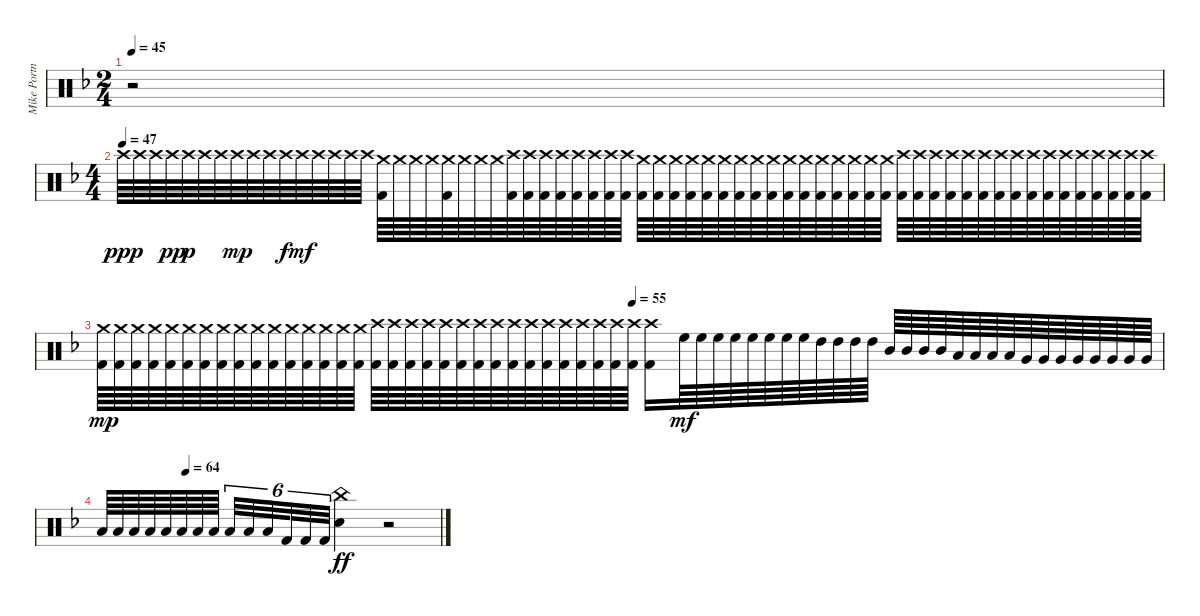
\track ("Mike Portnoy Drums" "Mike Portn") {instrument percussion}
\staff {score}
\articulation defaults
\ts (2 4)
\tempo 45
\clef neutral
\ks dminor
r.2{dy fff} |
\ts (4 4)
\tempo (47)
"Crash high (hit)".64{dy ppp} "Crash high (hit)".64 "Crash high (hit)".64 "Crash high (hit)".64{dy pp} "Crash high (hit)".64{dy p} "Crash high (hit)".64 "Crash high (hit)".64 "Crash high (hit)".64{dy mp} "Crash high (hit)".64 "Crash high (hit)".64 "Crash high (hit)".64{dy f} "Crash high (hit)".64{dy mf} "Crash high (hit)".64 "Crash high (hit)".64 "Crash high (hit)".64 "Crash high (hit)".64 ("Crash medium (hit)" "Kick (hit) 2").64 "Crash medium (hit)".64 "Crash medium (hit)".64 "Crash medium (hit)".64 ("Crash medium (hit)" "Kick (hit) 2").64 "Crash medium (hit)".64 "Crash medium (hit)".64 "Crash medium (hit)".64 ("Crash high (hit)" "Kick (hit) 2").64 ("Crash high (hit)" "Kick (hit) 2").64 ("Crash high (hit)" "Kick (hit) 2").64 ("Crash high (hit)" "Kick (hit) 2").64 ("Crash high (hit)" "Kick (hit) 2").64 ("Crash high (hit)" "Kick (hit) 2").64 ("Crash high (hit)" "Kick (hit) 2").64 ("Crash high (hit)" "Kick (hit) 2").64 ("Crash medium (hit)" "Kick (hit) 2").64 ("Crash medium (hit)" "Kick (hit) 2").64 ("Crash medium (hit)" "Kick (hit) 2").64 ("Crash medium (hit)" "Kick (hit) 2").64 ("Crash medium (hit)" "Kick (hit) 2").64 ("Crash medium (hit)" "Kick (hit) 2").64 ("Crash medium (hit)" "Kick (hit) 2").64 ("Crash medium (hit)" "Kick (hit) 2").64 ("Crash medium (hit)" "Kick (hit) 2").64 ("Crash medium (hit)" "Kick (hit) 2").64 ("Crash medium (hit)" "Kick (hit) 2").64 ("Crash medium (hit)" "Kick (hit) 2").64 ("Crash medium (hit)" "Kick (hit) 2").64 ("Crash medium (hit)" "Kick (hit) 2").64 ("Crash medium (hit)" "Kick (hit) 2").64 ("Crash medium (hit)" "Kick (hit) 2").64 ("Crash high (hit)" "Kick (hit) 2").64 ("Crash high (hit)" "Kick (hit) 2").64 ("Crash high (hit)" "Kick (hit) 2").64 ("Crash high (hit)" "Kick (hit) 2").64 ("Crash high (hit)" "Kick (hit) 2").64 ("Crash high (hit)" "Kick (hit) 2").64 ("Crash high (hit)" "Kick (hit) 2").64 ("Crash high (hit)" "Kick (hit) 2").64 ("Crash high (hit)" "Kick (hit) 2").64 ("Crash high (hit)" "Kick (hit) 2").64 ("Crash high (hit)" "Kick (hit) 2").64 ("Crash high (hit)" "Kick (hit) 2").64 ("Crash high (hit)" "Kick (hit) 2").64 ("Crash high (hit)" "Kick (hit) 2").64 ("Crash high (hit)" "Kick (hit) 2").64 ("Crash high (hit)" "Kick (hit) 2").64 |
\tempo (55 0.5)
("Crash medium (hit)" "Kick (hit) 2").64{dy mp} ("Crash medium (hit)" "Kick (hit) 2").64 ("Crash medium (hit)" "Kick (hit) 2").64 ("Crash medium (hit)" "Kick (hit) 2").64 ("Crash medium (hit)" "Kick (hit) 2").64 ("Crash medium (hit)" "Kick (hit) 2").64 ("Crash medium (hit)" "Kick (hit) 2").64 ("Crash medium (hit)" "Kick (hit) 2").64 ("Crash medium (hit)" "Kick (hit) 2").64 ("Crash medium (hit)" "Kick (hit) 2").64 ("Crash medium (hit)" "Kick (hit) 2").64 ("Crash medium (hit)" "Kick (hit) 2").64 ("Crash medium (hit)" "Kick (hit) 2").64 ("Crash medium (hit)" "Kick (hit) 2").64 ("Crash medium (hit)" "Kick (hit) 2").64 ("Crash medium (hit)" "Kick (hit) 2").64 ("Crash high (hit)" "Kick (hit) 2").64 ("Crash high (hit)" "Kick (hit) 2").64 ("Crash high (hit)" "Kick (hit) 2").64 ("Crash high (hit)" "Kick (hit) 2").64 ("Crash high (hit)" "Kick (hit) 2").64 ("Crash high (hit)" "Kick (hit) 2").64 ("Crash high (hit)" "Kick (hit) 2").64 ("Crash high (hit)" "Kick (hit) 2").64 ("Crash high (hit)" "Kick (hit) 2").64 ("Crash high (hit)" "Kick (hit) 2").64 ("Crash high (hit)" "Kick (hit) 2").64 ("Crash high (hit)" "Kick (hit) 2").64 ("Crash high (hit)" "Kick (hit) 2").64 ("Crash high (hit)" "Kick (hit) 2").64 ("Crash high (hit)" "Kick (hit) 2").64 ("Crash high (hit)" "Kick (hit) 2").64 ("Crash high (hit)" "Kick (hit) 2").16 "High Floor Tom (hit)".64{dy mf} "High Floor Tom (hit)".64 "High Floor Tom (hit)".64 "High Floor Tom (hit)".64 "High Floor Tom (hit)".64 "High Floor Tom (hit)".64 "High Floor Tom (hit)".64 "High Floor Tom (hit)".64 "High Tom (hit)".64 "High Tom (hit)".64 "High Tom (hit)".64 "High Tom (hit)".64 "Mid Tom (hit)".64 "Mid Tom (hit)".64 "Mid Tom (hit)".64 "Mid Tom (hit)".64 "Low Tom (hit)".64 "Low Tom (hit)".64 "Low Tom (hit)".64 "Low Tom (hit)".64 "Very Low Tom (hit)".64 "Very Low Tom (hit)".64 "Very Low Tom (hit)".64 "Very Low Tom (hit)".64 "Very Low Tom (hit)".64 "Very Low Tom (hit)".64 "Very Low Tom (hit)".64 "Very Low Tom (hit)".64 |
\tempo (64 0.25)
"Low Floor Tom (hit)".64 "Low Floor Tom (hit)".64 "Low Floor Tom (hit)".64 "Low Floor Tom (hit)".64 "Low Floor Tom (hit)".64 "Low Floor Tom (hit)".64 "Low Floor Tom (hit)".64 "Low Floor Tom (hit)".64{beam splitsecondary} "Low Floor Tom (hit)".32{tu (6 4)} "Low Floor Tom (hit)".32{tu (6 4)} "Low Floor Tom (hit)".32{tu (6 4) beam splitsecondary} "Kick (hit) 2".32{tu (6 4)} "Kick (hit) 2".32{tu (6 4)} "Kick (hit) 2".32{tu (6 4)} ("China (hit)" "Electric Snare (hit)").4{dy ff} r.2
